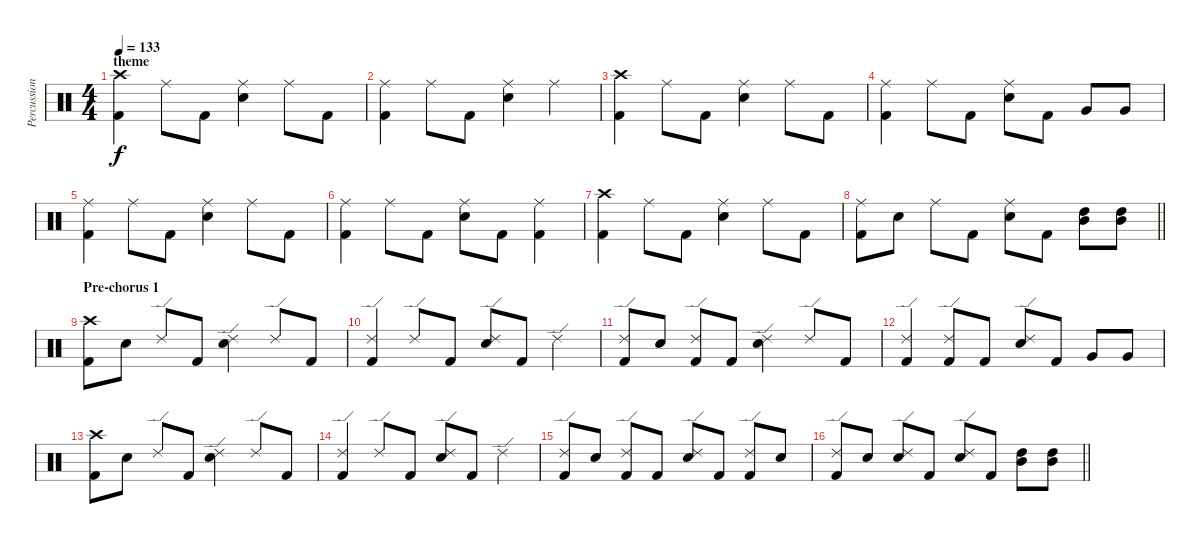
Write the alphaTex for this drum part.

\track ("Percussion" "Percussion") {instrument percussion}
\staff {score}
\articulation defaults
\ts (4 4)
\section ("" "theme")
\tempo 133
\clef neutral
\ks c
("Crash high (hit)" "Kick (hit) 2").4{dy f} "Ride (middle)".8 "Kick (hit) 2".8 ("Ride (middle)" "Electric Snare (hit)").4 "Ride (middle)".8 "Kick (hit) 2".8 |
("Ride (middle)" "Kick (hit) 2").4 "Ride (middle)".8 "Kick (hit) 2".8 ("Ride (middle)" "Electric Snare (hit)").4 "Ride (middle)".4 |
("Crash high (hit)" "Kick (hit) 2").4 "Ride (middle)".8 "Kick (hit) 2".8 ("Ride (middle)" "Electric Snare (hit)").4 "Ride (middle)".8 "Kick (hit) 2".8 |
("Ride (middle)" "Kick (hit) 2").4 "Ride (middle)".8 "Kick (hit) 2".8 ("Ride (middle)" "Electric Snare (hit)").8 "Kick (hit) 2".8 "Very Low Tom (hit)".8 "Very Low Tom (hit)".8 |
("Ride (middle)" "Kick (hit) 2").4 "Ride (middle)".8 "Kick (hit) 2".8 ("Ride (middle)" "Electric Snare (hit)").4 "Ride (middle)".8 "Kick (hit) 2".8 |
("Ride (middle)" "Kick (hit) 2").4 "Ride (middle)".8 "Kick (hit) 2".8 ("Ride (middle)" "Electric Snare (hit)").8 "Kick (hit) 2".8 ("Ride (middle)" "Kick (hit) 2").4 |
("Crash high (hit)" "Kick (hit) 2").4 "Ride (middle)".8 "Kick (hit) 2".8 ("Ride (middle)" "Electric Snare (hit)").4 "Ride (middle)".8 "Kick (hit) 2".8 |
\barLineRight lightlight
("Ride (middle)" "Kick (hit) 2").8 "Electric Snare (hit)".8 "Ride (middle)".8 "Kick (hit) 2".8 ("Ride (middle)" "Electric Snare (hit)").8 "Kick (hit) 2".8 ("Mid Tom (hit)" "High Tom (hit)").8 ("Mid Tom (hit)" "High Tom (hit)").8 |
\section ("" "Pre-chorus 1")
("Crash high (hit)" "Kick (hit) 2").8 "Electric Snare (hit)".8 "Ride (edge) 2".8 "Kick (hit) 2".8 ("Ride (edge) 2" "Electric Snare (hit)").4 "Ride (edge) 2".8 "Kick (hit) 2".8 |
("Ride (edge) 2" "Kick (hit) 2").4 "Ride (edge) 2".8 "Kick (hit) 2".8 ("Ride (edge) 2" "Electric Snare (hit)").8 "Kick (hit) 2".8 "Ride (edge) 2".4 |
("Ride (edge) 2" "Kick (hit) 2").8 "Electric Snare (hit)".8 ("Ride (edge) 2" "Kick (hit) 2").8 "Kick (hit) 2".8 ("Ride (edge) 2" "Electric Snare (hit)").4 "Ride (edge) 2".8 "Kick (hit) 2".8 |
("Ride (edge) 2" "Kick (hit) 2").4 ("Ride (edge) 2" "Kick (hit) 2").8 "Kick (hit) 2".8 ("Ride (edge) 2" "Electric Snare (hit)").8 "Kick (hit) 2".8 "Very Low Tom (hit)".8 "Very Low Tom (hit)".8 |
("Crash high (hit)" "Kick (hit) 2").8 "Electric Snare (hit)".8 "Ride (edge) 2".8 "Kick (hit) 2".8 ("Ride (edge) 2" "Electric Snare (hit)").4 "Ride (edge) 2".8 "Kick (hit) 2".8 |
("Ride (edge) 2" "Kick (hit) 2").4 "Ride (edge) 2".8 "Kick (hit) 2".8 ("Ride (edge) 2" "Electric Snare (hit)").8 "Kick (hit) 2".8 "Ride (edge) 2".4 |
("Ride (edge) 2" "Kick (hit) 2").8 "Electric Snare (hit)".8 ("Ride (edge) 2" "Kick (hit) 2").8 "Kick (hit) 2".8 ("Ride (edge) 2" "Electric Snare (hit)").8 "Kick (hit) 2".8 ("Ride (edge) 2" "Kick (hit) 2").8 "Electric Snare (hit)".8 |
\barLineRight lightlight
("Ride (edge) 2" "Kick (hit) 2").8 "Electric Snare (hit)".8 ("Ride (edge) 2" "Electric Snare (hit)").8 "Kick (hit) 2".8 ("Ride (edge) 2" "Electric Snare (hit)").8 "Kick (hit) 2".8 ("Mid Tom (hit)" "High Tom (hit)").8 ("Mid Tom (hit)" "High Tom (hit)").8
